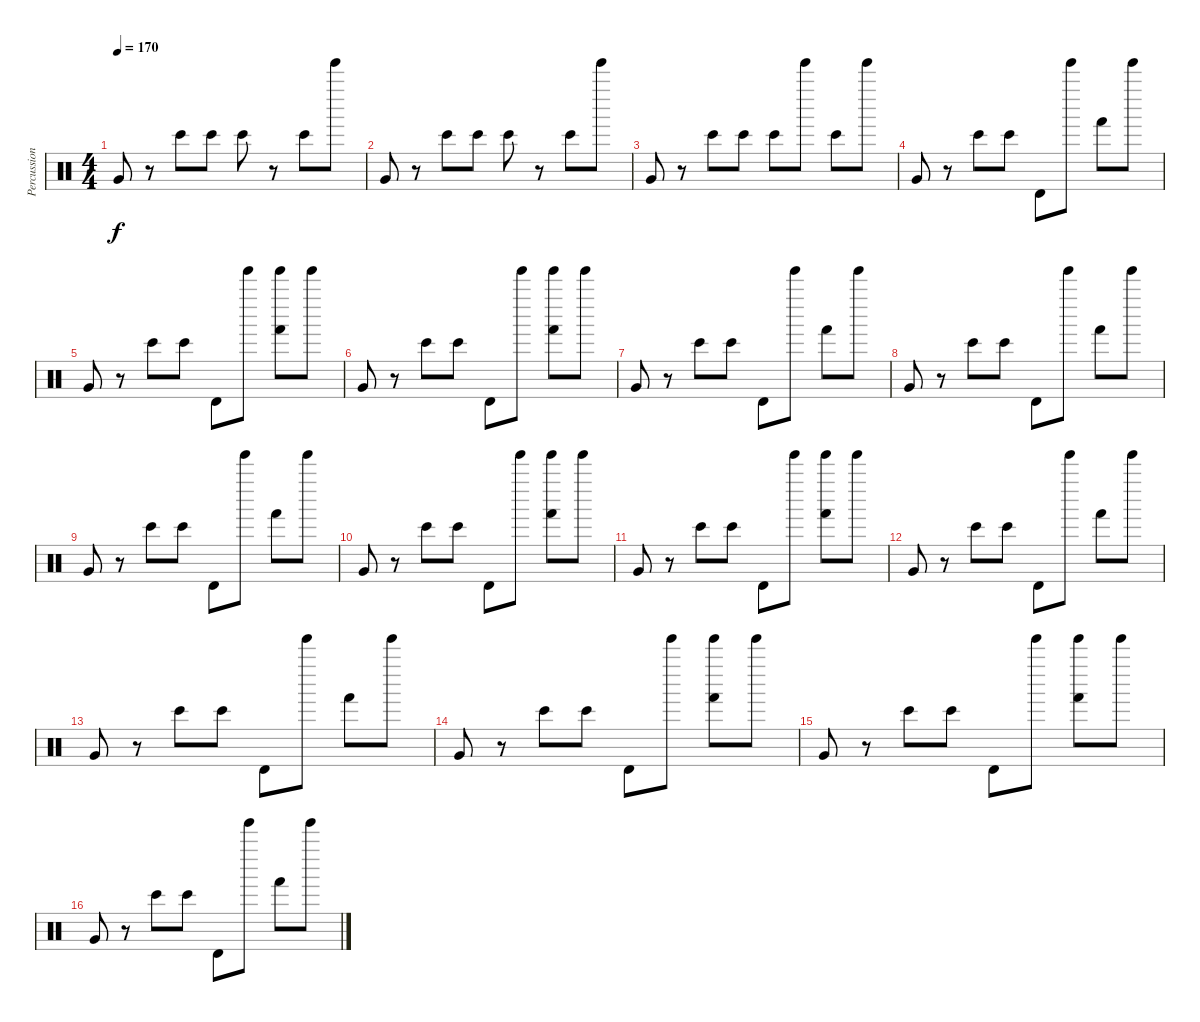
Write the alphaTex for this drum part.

\track ("Percussion" "Percussion") {instrument percussion}
\staff {score}
\articulation defaults
\ts (4 4)
\tempo 170
\clef neutral
\ks c "Very Low Tom (hit)".8{dy f}
r.8 "Bongo High (hit)".8 "Bongo High (hit)".8 "Bongo High (hit)".8 r.8 "Bongo High (hit)".8 "Tinkle Bell (hit)".8 |
"Very Low Tom (hit)".8 r.8 "Bongo High (hit)".8 "Bongo High (hit)".8 "Bongo High (hit)".8 r.8 "Bongo High (hit)".8 "Tinkle Bell (hit)".8 |
"Very Low Tom (hit)".8 r.8 "Bongo High (hit)".8 "Bongo High (hit)".8 "Bongo High (hit)".8 "Tinkle Bell (hit)".8 "Bongo High (hit)".8 "Tinkle Bell (hit)".8 |
"Very Low Tom (hit)".8 r.8 "Bongo High (hit)".8 "Bongo High (hit)".8 "Timbale high (hit)".8 "Tinkle Bell (hit)".8 "Hand (hit)".8 "Tinkle Bell (hit)".8 |
"Very Low Tom (hit)".8 r.8 "Bongo High (hit)".8 "Bongo High (hit)".8 "Timbale high (hit)".8 "Tinkle Bell (hit)".8 ("Hand (hit)" "Tinkle Bell (hit)").8 "Tinkle Bell (hit)".8 |
"Very Low Tom (hit)".8 r.8 "Bongo High (hit)".8 "Bongo High (hit)".8 "Timbale high (hit)".8 "Tinkle Bell (hit)".8 ("Hand (hit)" "Tinkle Bell (hit)").8 "Tinkle Bell (hit)".8 |
"Very Low Tom (hit)".8 r.8 "Bongo High (hit)".8 "Bongo High (hit)".8 "Timbale high (hit)".8 "Tinkle Bell (hit)".8 "Hand (hit)".8 "Tinkle Bell (hit)".8 |
"Very Low Tom (hit)".8 r.8 "Bongo High (hit)".8 "Bongo High (hit)".8 "Timbale high (hit)".8 "Tinkle Bell (hit)".8 "Hand (hit)".8 "Tinkle Bell (hit)".8 |
"Very Low Tom (hit)".8 r.8 "Bongo High (hit)".8 "Bongo High (hit)".8 "Timbale high (hit)".8 "Tinkle Bell (hit)".8 "Hand (hit)".8 "Tinkle Bell (hit)".8 |
"Very Low Tom (hit)".8 r.8 "Bongo High (hit)".8 "Bongo High (hit)".8 "Timbale high (hit)".8 "Tinkle Bell (hit)".8 ("Hand (hit)" "Tinkle Bell (hit)").8 "Tinkle Bell (hit)".8 |
"Very Low Tom (hit)".8 r.8 "Bongo High (hit)".8 "Bongo High (hit)".8 "Timbale high (hit)".8 "Tinkle Bell (hit)".8 ("Hand (hit)" "Tinkle Bell (hit)").8 "Tinkle Bell (hit)".8 |
"Very Low Tom (hit)".8 r.8 "Bongo High (hit)".8 "Bongo High (hit)".8 "Timbale high (hit)".8 "Tinkle Bell (hit)".8 "Hand (hit)".8 "Tinkle Bell (hit)".8 |
"Very Low Tom (hit)".8 r.8 "Bongo High (hit)".8 "Bongo High (hit)".8 "Timbale high (hit)".8 "Tinkle Bell (hit)".8 "Hand (hit)".8 "Tinkle Bell (hit)".8 |
"Very Low Tom (hit)".8 r.8 "Bongo High (hit)".8 "Bongo High (hit)".8 "Timbale high (hit)".8 "Tinkle Bell (hit)".8 ("Hand (hit)" "Tinkle Bell (hit)").8 "Tinkle Bell (hit)".8 |
"Very Low Tom (hit)".8 r.8 "Bongo High (hit)".8 "Bongo High (hit)".8 "Timbale high (hit)".8 "Tinkle Bell (hit)".8 ("Hand (hit)" "Tinkle Bell (hit)").8 "Tinkle Bell (hit)".8 |
"Very Low Tom (hit)".8 r.8 "Bongo High (hit)".8 "Bongo High (hit)".8 "Timbale high (hit)".8 "Tinkle Bell (hit)".8 "Hand (hit)".8 "Tinkle Bell (hit)".8
